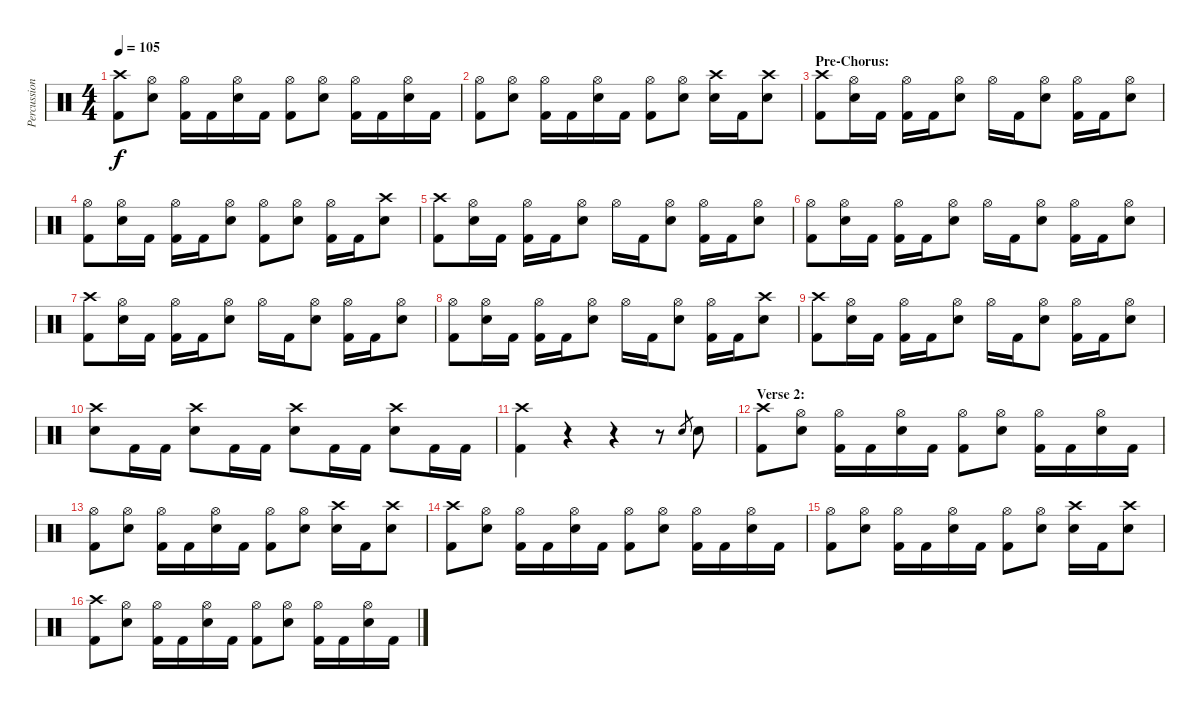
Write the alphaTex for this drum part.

\track ("Percussion" "Percussion") {instrument percussion}
\staff {score}
\articulation defaults
\ts (4 4)
\tempo 105
\clef neutral
\ks c
("Crash high (hit)" "Kick (hit) 2").8{dy f} ("Hi-Hat (open)" "Snare (hit) 2").8 ("Hi-Hat (open)" "Kick (hit) 2").16 "Kick (hit) 2".16 ("Hi-Hat (open)" "Snare (hit) 2").16 "Kick (hit) 2".16 ("Hi-Hat (open)" "Kick (hit) 2").8 ("Hi-Hat (open)" "Snare (hit) 2").8 ("Hi-Hat (open)" "Kick (hit) 2").16 "Kick (hit) 2".16 ("Hi-Hat (open)" "Snare (hit) 2").16 "Kick (hit) 2".16 |
("Hi-Hat (open)" "Kick (hit) 2").8 ("Hi-Hat (open)" "Snare (hit) 2").8 ("Hi-Hat (open)" "Kick (hit) 2").16 "Kick (hit) 2".16 ("Hi-Hat (open)" "Snare (hit) 2").16 "Kick (hit) 2".16 ("Hi-Hat (open)" "Kick (hit) 2").8 ("Hi-Hat (open)" "Snare (hit) 2").8 ("Crash high (hit)" "Snare (hit) 2").16 "Kick (hit) 2".16 ("Crash high (hit)" "Snare (hit) 2").8 |
\section ("" "Pre-Chorus:")
("Crash high (hit)" "Kick (hit) 2").8 ("Hi-Hat (open)" "Snare (hit) 2").16 "Kick (hit) 2".16 ("Hi-Hat (open)" "Kick (hit) 2").16 "Kick (hit) 2".16 ("Hi-Hat (open)" "Snare (hit) 2").8 "Hi-Hat (open)".16 "Kick (hit) 2".16 ("Hi-Hat (open)" "Snare (hit) 2").8 ("Hi-Hat (open)" "Kick (hit) 2").16 "Kick (hit) 2".16 ("Hi-Hat (open)" "Snare (hit) 2").8 |
("Hi-Hat (open)" "Kick (hit) 2").8 ("Hi-Hat (open)" "Snare (hit) 2").16 "Kick (hit) 2".16 ("Hi-Hat (open)" "Kick (hit) 2").16 "Kick (hit) 2".16 ("Hi-Hat (open)" "Snare (hit) 2").8 ("Hi-Hat (open)" "Kick (hit) 2").8 ("Hi-Hat (open)" "Snare (hit) 2").8 ("Hi-Hat (open)" "Kick (hit) 2").16 "Kick (hit) 2".16 ("Crash high (hit)" "Snare (hit) 2").8 |
("Crash high (hit)" "Kick (hit) 2").8 ("Hi-Hat (open)" "Snare (hit) 2").16 "Kick (hit) 2".16 ("Hi-Hat (open)" "Kick (hit) 2").16 "Kick (hit) 2".16 ("Hi-Hat (open)" "Snare (hit) 2").8 "Hi-Hat (open)".16 "Kick (hit) 2".16 ("Hi-Hat (open)" "Snare (hit) 2").8 ("Hi-Hat (open)" "Kick (hit) 2").16 "Kick (hit) 2".16 ("Hi-Hat (open)" "Snare (hit) 2").8 |
("Hi-Hat (open)" "Kick (hit) 2").8 ("Hi-Hat (open)" "Snare (hit) 2").16 "Kick (hit) 2".16 ("Hi-Hat (open)" "Kick (hit) 2").16 "Kick (hit) 2".16 ("Hi-Hat (open)" "Snare (hit) 2").8 "Hi-Hat (open)".16 "Kick (hit) 2".16 ("Hi-Hat (open)" "Snare (hit) 2").8 ("Hi-Hat (open)" "Kick (hit) 2").16 "Kick (hit) 2".16 ("Hi-Hat (open)" "Snare (hit) 2").8 |
("Crash high (hit)" "Kick (hit) 2").8 ("Hi-Hat (open)" "Snare (hit) 2").16 "Kick (hit) 2".16 ("Hi-Hat (open)" "Kick (hit) 2").16 "Kick (hit) 2".16 ("Hi-Hat (open)" "Snare (hit) 2").8 "Hi-Hat (open)".16 "Kick (hit) 2".16 ("Hi-Hat (open)" "Snare (hit) 2").8 ("Hi-Hat (open)" "Kick (hit) 2").16 "Kick (hit) 2".16 ("Hi-Hat (open)" "Snare (hit) 2").8 |
("Hi-Hat (open)" "Kick (hit) 2").8 ("Hi-Hat (open)" "Snare (hit) 2").16 "Kick (hit) 2".16 ("Hi-Hat (open)" "Kick (hit) 2").16 "Kick (hit) 2".16 ("Hi-Hat (open)" "Snare (hit) 2").8 "Hi-Hat (open)".16 "Kick (hit) 2".16 ("Hi-Hat (open)" "Snare (hit) 2").8 ("Hi-Hat (open)" "Kick (hit) 2").16 "Kick (hit) 2".16 ("Crash high (hit)" "Snare (hit) 2").8 |
("Crash high (hit)" "Kick (hit) 2").8 ("Hi-Hat (open)" "Snare (hit) 2").16 "Kick (hit) 2".16 ("Hi-Hat (open)" "Kick (hit) 2").16 "Kick (hit) 2".16 ("Hi-Hat (open)" "Snare (hit) 2").8 "Hi-Hat (open)".16 "Kick (hit) 2".16 ("Hi-Hat (open)" "Snare (hit) 2").8 ("Hi-Hat (open)" "Kick (hit) 2").16 "Kick (hit) 2".16 ("Hi-Hat (open)" "Snare (hit) 2").8 |
("Crash high (hit)" "Snare (hit) 2").8 "Kick (hit) 2".16 "Kick (hit) 2".16 ("Crash high (hit)" "Snare (hit) 2").8 "Kick (hit) 2".16 "Kick (hit) 2".16 ("Crash high (hit)" "Snare (hit) 2").8 "Kick (hit) 2".16 "Kick (hit) 2".16 ("Crash high (hit)" "Snare (hit) 2").8 "Kick (hit) 2".16 "Kick (hit) 2".16 |
("Crash high (hit)" "Kick (hit) 2").4 r.4 r.4 r.8 "Snare (hit) 2".8{gr} "Snare (hit) 2".8 |
\section ("" "Verse 2:")
("Crash high (hit)" "Kick (hit) 2").8 ("Hi-Hat (open)" "Snare (hit) 2").8 ("Hi-Hat (open)" "Kick (hit) 2").16 "Kick (hit) 2".16 ("Hi-Hat (open)" "Snare (hit) 2").16 "Kick (hit) 2".16 ("Hi-Hat (open)" "Kick (hit) 2").8 ("Hi-Hat (open)" "Snare (hit) 2").8 ("Hi-Hat (open)" "Kick (hit) 2").16 "Kick (hit) 2".16 ("Hi-Hat (open)" "Snare (hit) 2").16 "Kick (hit) 2".16 |
("Hi-Hat (open)" "Kick (hit) 2").8 ("Hi-Hat (open)" "Snare (hit) 2").8 ("Hi-Hat (open)" "Kick (hit) 2").16 "Kick (hit) 2".16 ("Hi-Hat (open)" "Snare (hit) 2").16 "Kick (hit) 2".16 ("Hi-Hat (open)" "Kick (hit) 2").8 ("Hi-Hat (open)" "Snare (hit) 2").8 ("Crash high (hit)" "Snare (hit) 2").16 "Kick (hit) 2".16 ("Crash high (hit)" "Snare (hit) 2").8 |
("Crash high (hit)" "Kick (hit) 2").8 ("Hi-Hat (open)" "Snare (hit) 2").8 ("Hi-Hat (open)" "Kick (hit) 2").16 "Kick (hit) 2".16 ("Hi-Hat (open)" "Snare (hit) 2").16 "Kick (hit) 2".16 ("Hi-Hat (open)" "Kick (hit) 2").8 ("Hi-Hat (open)" "Snare (hit) 2").8 ("Hi-Hat (open)" "Kick (hit) 2").16 "Kick (hit) 2".16 ("Hi-Hat (open)" "Snare (hit) 2").16 "Kick (hit) 2".16 |
("Hi-Hat (open)" "Kick (hit) 2").8 ("Hi-Hat (open)" "Snare (hit) 2").8 ("Hi-Hat (open)" "Kick (hit) 2").16 "Kick (hit) 2".16 ("Hi-Hat (open)" "Snare (hit) 2").16 "Kick (hit) 2".16 ("Hi-Hat (open)" "Kick (hit) 2").8 ("Hi-Hat (open)" "Snare (hit) 2").8 ("Crash high (hit)" "Snare (hit) 2").16 "Kick (hit) 2".16 ("Crash high (hit)" "Snare (hit) 2").8 |
("Crash high (hit)" "Kick (hit) 2").8 ("Hi-Hat (open)" "Snare (hit) 2").8 ("Hi-Hat (open)" "Kick (hit) 2").16 "Kick (hit) 2".16 ("Hi-Hat (open)" "Snare (hit) 2").16 "Kick (hit) 2".16 ("Hi-Hat (open)" "Kick (hit) 2").8 ("Hi-Hat (open)" "Snare (hit) 2").8 ("Hi-Hat (open)" "Kick (hit) 2").16 "Kick (hit) 2".16 ("Hi-Hat (open)" "Snare (hit) 2").16 "Kick (hit) 2".16
